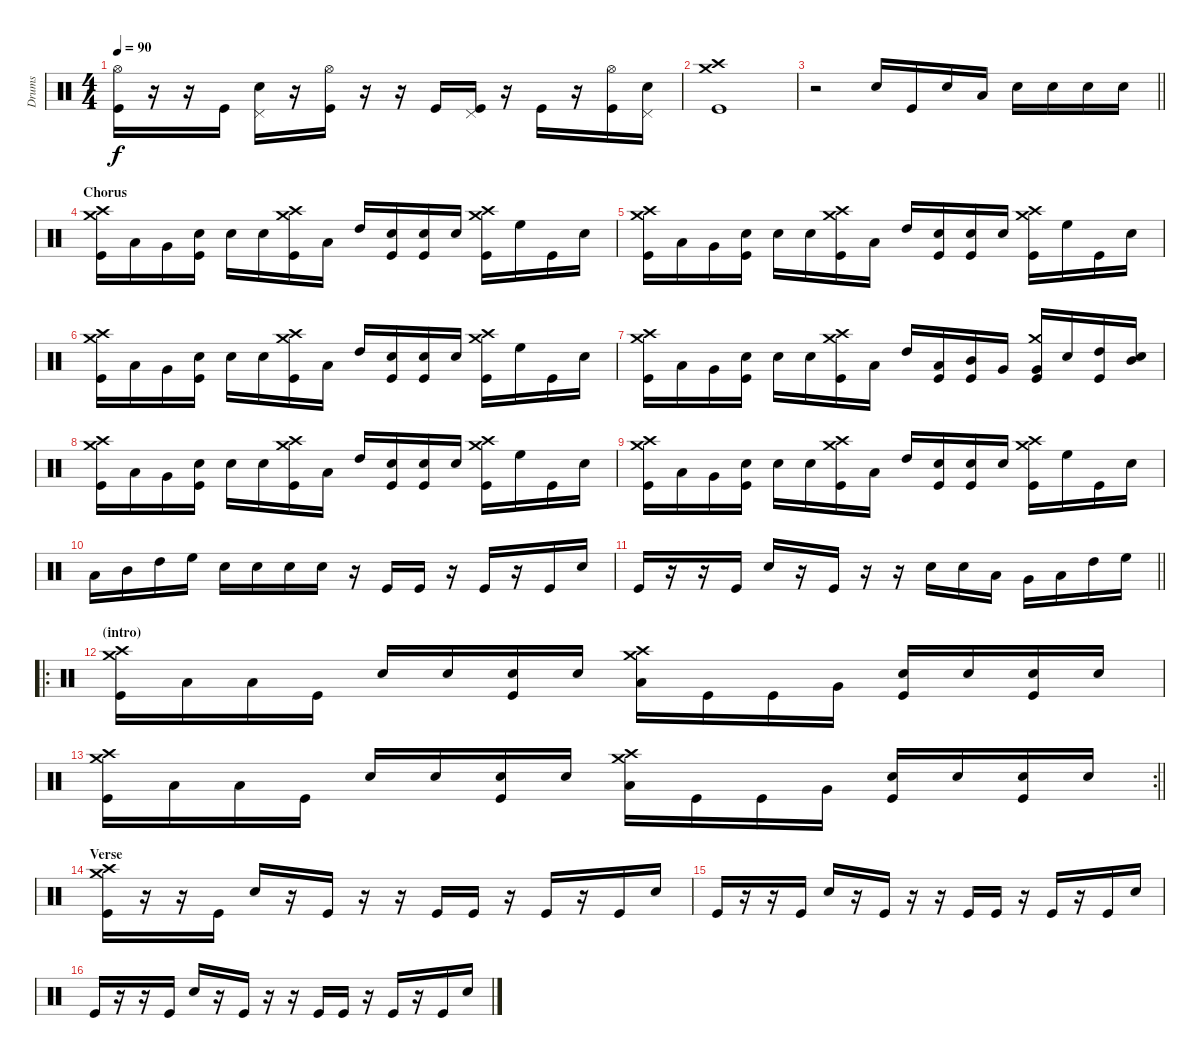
\track ("Drums" "Drums") {instrument percussion}
\staff {score}
\articulation defaults
\ts (4 4)
\tempo 90
\clef neutral
\ks c
("Hi-Hat (open)" "Kick (hit)").16{dy f} r.16 r.16 "Kick (hit)".16 ("Pedal Hi-Hat (hit)" "Snare (hit) 2").16 r.16 ("Hi-Hat (open)" "Kick (hit)").16 r.16 r.16 "Kick (hit)".16 ("Pedal Hi-Hat (hit)" "Kick (hit)").16 r.16 "Kick (hit)".16 r.16 ("Hi-Hat (open)" "Kick (hit)").16 ("Pedal Hi-Hat (hit)" "Snare (hit) 2").16 |
("Crash medium (hit)" "Crash high (hit)" "Kick (hit)").1 |
\barLineRight lightlight
r.2 "Snare (hit) 2".16 "Kick (hit)".16 "Snare (hit) 2".16 "Low Floor Tom (hit)".16 "Snare (hit) 2".16 "Snare (hit) 2".16 "Snare (hit) 2".16 "Snare (hit) 2".16 |
\section ("" "Chorus")
("Crash medium (hit)" "Crash high (hit)" "Kick (hit)").16 "Low Floor Tom (hit)".16 "Very Low Tom (hit)".16 ("Snare (hit) 2" "Kick (hit)").16 "Snare (hit) 2".16 "Snare (hit) 2".16 ("Crash medium (hit)" "Crash high (hit)" "Kick (hit)").16 "Low Tom (hit)".16 "High Tom (hit)".16 ("Snare (hit) 2" "Kick (hit)").16 ("Snare (hit) 2" "Kick (hit)").16 "Snare (hit) 2".16 ("Crash medium (hit)" "Crash high (hit)" "Kick (hit)").16 "High Floor Tom (hit)".16 "Kick (hit)".16 "Snare (hit) 2".16 |
("Crash medium (hit)" "Crash high (hit)" "Kick (hit)").16 "Low Floor Tom (hit)".16 "Very Low Tom (hit)".16 ("Snare (hit) 2" "Kick (hit)").16 "Snare (hit) 2".16 "Snare (hit) 2".16 ("Crash medium (hit)" "Crash high (hit)" "Kick (hit)").16 "Low Tom (hit)".16 "High Tom (hit)".16 ("Snare (hit) 2" "Kick (hit)").16 ("Snare (hit) 2" "Kick (hit)").16 "Snare (hit) 2".16 ("Crash medium (hit)" "Crash high (hit)" "Kick (hit)").16 "High Floor Tom (hit)".16 "Kick (hit)".16 "Snare (hit) 2".16 |
("Crash medium (hit)" "Crash high (hit)" "Kick (hit)").16 "Low Floor Tom (hit)".16 "Very Low Tom (hit)".16 ("Snare (hit) 2" "Kick (hit)").16 "Snare (hit) 2".16 "Snare (hit) 2".16 ("Crash medium (hit)" "Crash high (hit)" "Kick (hit)").16 "Low Tom (hit)".16 "High Tom (hit)".16 ("Snare (hit) 2" "Kick (hit)").16 ("Snare (hit) 2" "Kick (hit)").16 "Snare (hit) 2".16 ("Crash medium (hit)" "Crash high (hit)" "Kick (hit)").16 "High Floor Tom (hit)".16 "Kick (hit)".16 "Snare (hit) 2".16 |
("Crash medium (hit)" "Crash high (hit)" "Kick (hit)").16 "Low Floor Tom (hit)".16 "Very Low Tom (hit)".16 ("Snare (hit) 2" "Kick (hit)").16 "Snare (hit) 2".16 "Snare (hit) 2".16 ("Crash medium (hit)" "Crash high (hit)" "Kick (hit)").16 "Low Tom (hit)".16 "High Tom (hit)".16 ("Low Tom (hit)" "Kick (hit)").16 ("Mid Tom (hit)" "Kick (hit)").16 "Very Low Tom (hit)".16 ("Crash medium (hit)" "Very Low Tom (hit)" "Kick (hit)").16 "Snare (hit) 2".16 ("High Tom (hit)" "Kick (hit)").16 ("Mid Tom (hit)" "Snare (hit) 2").16 |
("Crash medium (hit)" "Crash high (hit)" "Kick (hit)").16 "Low Floor Tom (hit)".16 "Very Low Tom (hit)".16 ("Snare (hit) 2" "Kick (hit)").16 "Snare (hit) 2".16 "Snare (hit) 2".16 ("Crash medium (hit)" "Crash high (hit)" "Kick (hit)").16 "Low Tom (hit)".16 "High Tom (hit)".16 ("Snare (hit) 2" "Kick (hit)").16 ("Snare (hit) 2" "Kick (hit)").16 "Snare (hit) 2".16 ("Crash medium (hit)" "Crash high (hit)" "Kick (hit)").16 "High Floor Tom (hit)".16 "Kick (hit)".16 "Snare (hit) 2".16 |
("Crash medium (hit)" "Crash high (hit)" "Kick (hit)").16 "Low Floor Tom (hit)".16 "Very Low Tom (hit)".16 ("Snare (hit) 2" "Kick (hit)").16 "Snare (hit) 2".16 "Snare (hit) 2".16 ("Crash medium (hit)" "Crash high (hit)" "Kick (hit)").16 "Low Tom (hit)".16 "High Tom (hit)".16 ("Snare (hit) 2" "Kick (hit)").16 ("Snare (hit) 2" "Kick (hit)").16 "Snare (hit) 2".16 ("Crash medium (hit)" "Crash high (hit)" "Kick (hit)").16 "High Floor Tom (hit)".16 "Kick (hit)".16 "Snare (hit) 2".16 |
"Low Tom (hit)".16 "Mid Tom (hit)".16 "High Tom (hit)".16 "High Floor Tom (hit)".16 "Snare (hit) 2".16 "Snare (hit) 2".16 "Snare (hit) 2".16 "Snare (hit) 2".16 r.16 "Kick (hit)".16 "Kick (hit)".16 r.16 "Kick (hit)".16 r.16 "Kick (hit)".16 "Snare (hit) 2".16 |
\barLineRight lightlight "Kick (hit)".16
r.16 r.16 "Kick (hit)".16 "Snare (hit) 2".16 r.16 "Kick (hit)".16 r.16 r.16 "Snare (hit) 2".16 "Snare (hit) 2".16 "Low Floor Tom (hit)".16 "Very Low Tom (hit)".16 "Low Tom (hit)".16 "High Tom (hit)".16 "High Floor Tom (hit)".16 |
\ro
\section ("" "(intro)")
("Crash medium (hit)" "Crash high (hit)" "Kick (hit)").16 "Low Tom (hit)".16 "Low Floor Tom (hit)".16 "Kick (hit)".16 "Snare (hit) 2".16 "Snare (hit) 2".16 ("Snare (hit) 2" "Kick (hit)").16 "Snare (hit) 2".16 ("Crash medium (hit)" "Crash high (hit)" "Low Floor Tom (hit)").16 "Kick (hit)".16 "Kick (hit)".16 "Very Low Tom (hit)".16 ("Snare (hit) 2" "Kick (hit)").16 "Snare (hit) 2".16 ("Snare (hit) 2" "Kick (hit)").16 "Snare (hit) 2".16 |
\rc 2
\barLineRight lightlight
("Crash medium (hit)" "Crash high (hit)" "Kick (hit)").16 "Low Tom (hit)".16 "Low Floor Tom (hit)".16 "Kick (hit)".16 "Snare (hit) 2".16 "Snare (hit) 2".16 ("Snare (hit) 2" "Kick (hit)").16 "Snare (hit) 2".16 ("Crash medium (hit)" "Crash high (hit)" "Low Floor Tom (hit)").16 "Kick (hit)".16 "Kick (hit)".16 "Very Low Tom (hit)".16 ("Snare (hit) 2" "Kick (hit)").16 "Snare (hit) 2".16 ("Snare (hit) 2" "Kick (hit)").16 "Snare (hit) 2".16 |
\section ("" "Verse")
("Crash medium (hit)" "Crash high (hit)" "Kick (hit)").16 r.16 r.16 "Kick (hit)".16 "Snare (hit) 2".16 r.16 "Kick (hit)".16 r.16 r.16 "Kick (hit)".16 "Kick (hit)".16 r.16 "Kick (hit)".16 r.16 "Kick (hit)".16 "Snare (hit) 2".16 |
"Kick (hit)".16 r.16 r.16 "Kick (hit)".16 "Snare (hit) 2".16 r.16 "Kick (hit)".16 r.16 r.16 "Kick (hit)".16 "Kick (hit)".16 r.16 "Kick (hit)".16 r.16 "Kick (hit)".16 "Snare (hit) 2".16 |
"Kick (hit)".16 r.16 r.16 "Kick (hit)".16 "Snare (hit) 2".16 r.16 "Kick (hit)".16 r.16 r.16 "Kick (hit)".16 "Kick (hit)".16 r.16 "Kick (hit)".16 r.16 "Kick (hit)".16 "Snare (hit) 2".16
